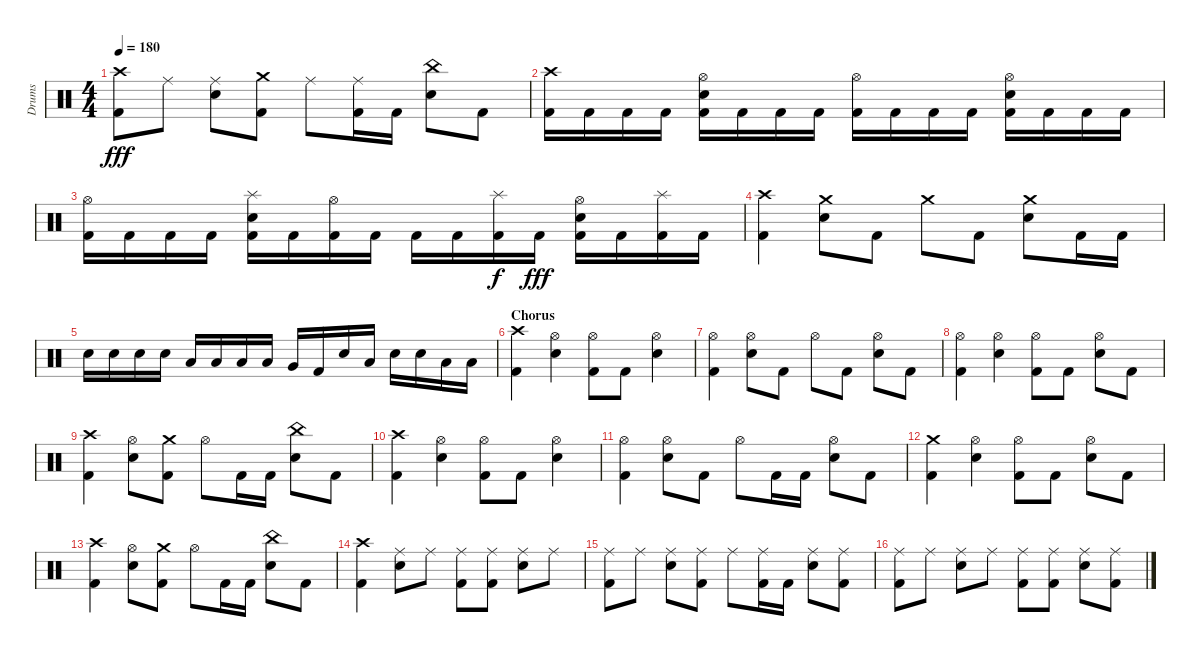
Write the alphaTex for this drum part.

\track ("Drums" "Drums") {instrument percussion}
\staff {score}
\articulation defaults
\ts (4 4)
\tempo 180
\clef neutral
\ks aminor
("Kick (hit) 2" "Crash high (hit)").8{dy fff} "Ride (middle)".8 ("Ride (middle)" "Snare (hit) 2").8 ("Kick (hit) 2" "Crash medium (hit)").8 "Ride (middle)".8 ("Kick (hit) 2" "Ride (middle)").16 "Kick (hit) 2".16 ("China (hit)" "Snare (hit) 2").8 "Kick (hit) 2".8 |
("Crash high (hit)" "Kick (hit) 2").16 "Kick (hit) 2".16 "Kick (hit) 2".16 "Kick (hit) 2".16 ("Hi-Hat (open)" "Kick (hit) 2" "Snare (hit) 2").16 "Kick (hit) 2".16 "Kick (hit) 2".16 "Kick (hit) 2".16 ("Kick (hit) 2" "Hi-Hat (open)").16 "Kick (hit) 2".16 "Kick (hit) 2".16 "Kick (hit) 2".16 ("Snare (hit) 2" "Hi-Hat (open)" "Kick (hit) 2").16 "Kick (hit) 2".16 "Kick (hit) 2".16 "Kick (hit) 2".16 |
("Hi-Hat (open)" "Kick (hit) 2").16 "Kick (hit) 2".16 "Kick (hit) 2".16 "Kick (hit) 2".16 ("Kick (hit) 2" "Snare (hit) 2" "Splash (hit)").16 "Kick (hit) 2".16 ("Kick (hit) 2" "Hi-Hat (open)").16 "Kick (hit) 2".16 "Kick (hit) 2".16 "Kick (hit) 2".16 ("Splash (hit)" "Kick (hit) 2").16{dy f} "Kick (hit) 2".16{dy fff} ("Snare (hit) 2" "Kick (hit) 2" "Hi-Hat (open)").16 "Kick (hit) 2".16 ("Kick (hit) 2" "Splash (hit)").16 "Kick (hit) 2".16 |
("Kick (hit) 2" "Crash high (hit)").4 ("Crash medium (hit)" "Snare (hit) 2").8 "Kick (hit) 2".8 "Crash medium (hit)".8 "Kick (hit) 2".8 ("Snare (hit) 2" "Crash medium (hit)").8 "Kick (hit) 2".16 "Kick (hit) 2".16 |
"Snare (hit) 2".16 "Snare (hit) 2".16 "Snare (hit) 2".16 "Snare (hit) 2".16 "Low Tom (hit)".16 "Low Tom (hit)".16 "Low Tom (hit)".16 "Low Tom (hit)".16 "Very Low Tom (hit)".16 "Kick (hit) 2".16 "Snare (hit) 2".16 "Low Floor Tom (hit)".16 "Snare (hit) 2".16 "Snare (hit) 2".16 "Low Floor Tom (hit)".16 "Low Floor Tom (hit)".16 |
\section ("" "Chorus")
("Kick (hit) 2" "Crash high (hit)").4 ("Snare (hit) 2" "Hi-Hat (open)").4 ("Hi-Hat (open)" "Kick (hit) 2").8 "Kick (hit) 2".8 ("Snare (hit) 2" "Hi-Hat (open)").4 |
("Kick (hit) 2" "Hi-Hat (open)").4 ("Hi-Hat (open)" "Snare (hit) 2").8 "Kick (hit) 2".8 "Hi-Hat (open)".8 "Kick (hit) 2".8 ("Snare (hit) 2" "Hi-Hat (open)").8 "Kick (hit) 2".8 |
("Kick (hit) 2" "Hi-Hat (open)").4 ("Snare (hit) 2" "Hi-Hat (open)").4 ("Kick (hit) 2" "Hi-Hat (open)").8 "Kick (hit) 2".8 ("Hi-Hat (open)" "Snare (hit) 2").8 "Kick (hit) 2".8 |
("Kick (hit) 2" "Crash high (hit)").4 ("Snare (hit) 2" "Hi-Hat (open)").8 ("Kick (hit) 2" "Crash medium (hit)").8 "Hi-Hat (open)".8 "Kick (hit) 2".16 "Kick (hit) 2".16 ("Snare (hit) 2" "China (hit)").8 "Kick (hit) 2".8 |
("Kick (hit) 2" "Crash high (hit)").4 ("Snare (hit) 2" "Hi-Hat (open)").4 ("Hi-Hat (open)" "Kick (hit) 2").8 "Kick (hit) 2".8 ("Snare (hit) 2" "Hi-Hat (open)").4 |
("Kick (hit) 2" "Hi-Hat (open)").4 ("Hi-Hat (open)" "Snare (hit) 2").8 "Kick (hit) 2".8 "Hi-Hat (open)".8 "Kick (hit) 2".16 "Kick (hit) 2".16 ("Snare (hit) 2" "Hi-Hat (open)").8 "Kick (hit) 2".8 |
("Crash medium (hit)" "Kick (hit) 2").4 ("Snare (hit) 2" "Hi-Hat (open)").4 ("Kick (hit) 2" "Hi-Hat (open)").8 "Kick (hit) 2".8 ("Hi-Hat (open)" "Snare (hit) 2").8 "Kick (hit) 2".8 |
("Kick (hit) 2" "Crash high (hit)").4 ("Hi-Hat (open)" "Snare (hit) 2").8 ("Crash medium (hit)" "Kick (hit) 2").8 "Hi-Hat (open)".8 "Kick (hit) 2".16 "Kick (hit) 2".16 ("Snare (hit) 2" "China (hit)").8 "Kick (hit) 2".8 |
("Crash high (hit)" "Kick (hit) 2").4 ("Snare (hit) 2" "Ride (middle)").8 "Ride (middle)".8 ("Kick (hit) 2" "Ride (middle)").8 ("Kick (hit) 2" "Ride (middle)").8 ("Snare (hit) 2" "Ride (middle)").8 "Ride (middle)".8 |
("Ride (middle)" "Kick (hit) 2").8 "Ride (middle)".8 ("Snare (hit) 2" "Ride (middle)").8 ("Kick (hit) 2" "Ride (middle)").8 "Ride (middle)".8 ("Ride (middle)" "Kick (hit) 2").16 "Kick (hit) 2".16 ("Snare (hit) 2" "Ride (middle)").8 ("Kick (hit) 2" "Ride (middle)").8 |
("Kick (hit) 2" "Ride (middle)").8 "Ride (middle)".8 ("Snare (hit) 2" "Ride (middle)").8 "Ride (middle)".8 ("Ride (middle)" "Kick (hit) 2").8 ("Kick (hit) 2" "Ride (middle)").8 ("Ride (middle)" "Snare (hit) 2").8 ("Kick (hit) 2" "Ride (middle)").8
